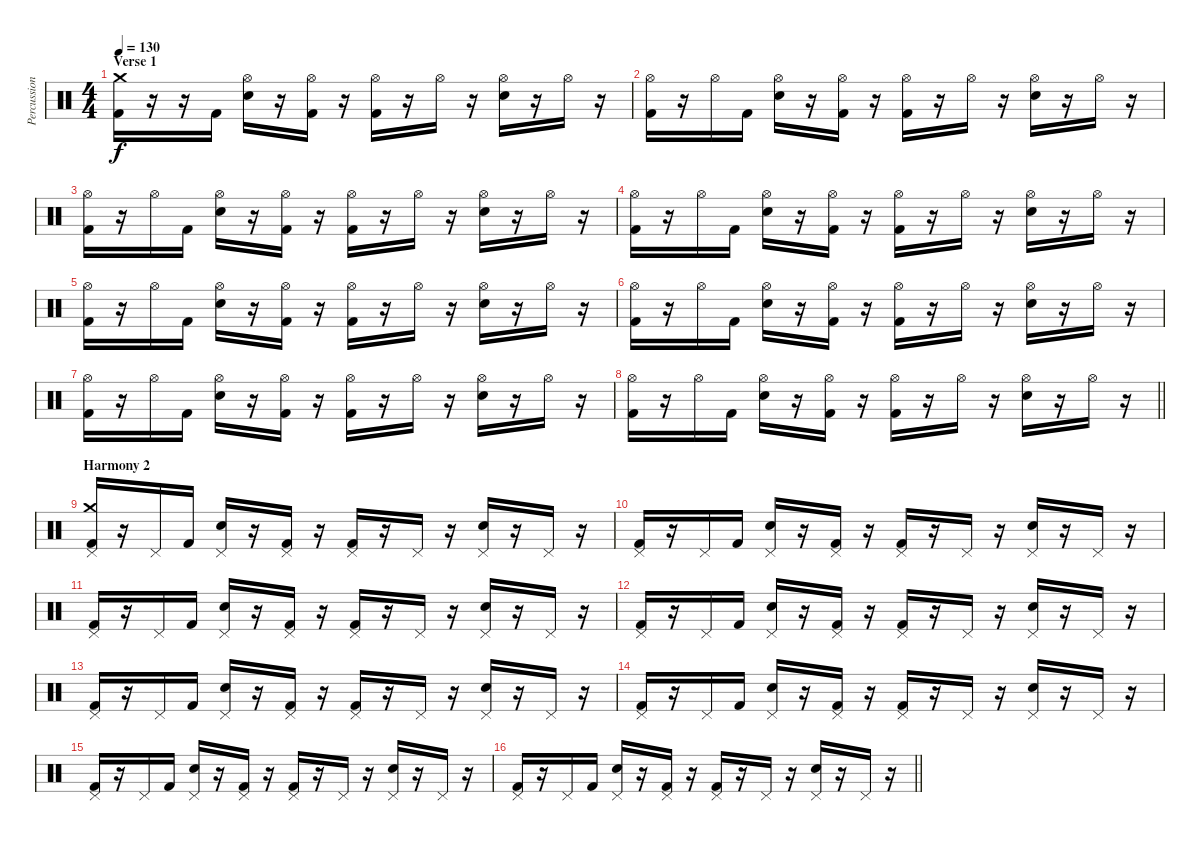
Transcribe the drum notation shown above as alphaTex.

\track ("Percussion" "Percussion") {instrument percussion}
\staff {score}
\articulation defaults
\ts (4 4)
\section ("" "Verse 1")
\tempo 130
\clef neutral
\ks c
("Kick (hit) 2" "Crash medium (hit)").16{dy f} r.16 r.16 "Kick (hit) 2".16 ("Electric Snare (hit)" "Hi-Hat (open)").16 r.16 ("Kick (hit) 2" "Hi-Hat (open)").16 r.16 ("Kick (hit) 2" "Hi-Hat (open)").16 r.16 "Hi-Hat (open)".16 r.16 ("Electric Snare (hit)" "Hi-Hat (open)").16 r.16 "Hi-Hat (open)".16 r.16 |
("Kick (hit) 2" "Hi-Hat (open)").16 r.16 "Hi-Hat (open)".16 "Kick (hit) 2".16 ("Electric Snare (hit)" "Hi-Hat (open)").16 r.16 ("Kick (hit) 2" "Hi-Hat (open)").16 r.16 ("Kick (hit) 2" "Hi-Hat (open)").16 r.16 "Hi-Hat (open)".16 r.16 ("Electric Snare (hit)" "Hi-Hat (open)").16 r.16 "Hi-Hat (open)".16 r.16 |
("Kick (hit) 2" "Hi-Hat (open)").16 r.16 "Hi-Hat (open)".16 "Kick (hit) 2".16 ("Electric Snare (hit)" "Hi-Hat (open)").16 r.16 ("Kick (hit) 2" "Hi-Hat (open)").16 r.16 ("Kick (hit) 2" "Hi-Hat (open)").16 r.16 "Hi-Hat (open)".16 r.16 ("Electric Snare (hit)" "Hi-Hat (open)").16 r.16 "Hi-Hat (open)".16 r.16 |
("Kick (hit) 2" "Hi-Hat (open)").16 r.16 "Hi-Hat (open)".16 "Kick (hit) 2".16 ("Electric Snare (hit)" "Hi-Hat (open)").16 r.16 ("Kick (hit) 2" "Hi-Hat (open)").16 r.16 ("Kick (hit) 2" "Hi-Hat (open)").16 r.16 "Hi-Hat (open)".16 r.16 ("Electric Snare (hit)" "Hi-Hat (open)").16 r.16 "Hi-Hat (open)".16 r.16 |
("Kick (hit) 2" "Hi-Hat (open)").16 r.16 "Hi-Hat (open)".16 "Kick (hit) 2".16 ("Electric Snare (hit)" "Hi-Hat (open)").16 r.16 ("Kick (hit) 2" "Hi-Hat (open)").16 r.16 ("Kick (hit) 2" "Hi-Hat (open)").16 r.16 "Hi-Hat (open)".16 r.16 ("Electric Snare (hit)" "Hi-Hat (open)").16 r.16 "Hi-Hat (open)".16 r.16 |
("Kick (hit) 2" "Hi-Hat (open)").16 r.16 "Hi-Hat (open)".16 "Kick (hit) 2".16 ("Electric Snare (hit)" "Hi-Hat (open)").16 r.16 ("Kick (hit) 2" "Hi-Hat (open)").16 r.16 ("Kick (hit) 2" "Hi-Hat (open)").16 r.16 "Hi-Hat (open)".16 r.16 ("Electric Snare (hit)" "Hi-Hat (open)").16 r.16 "Hi-Hat (open)".16 r.16 |
("Kick (hit) 2" "Hi-Hat (open)").16 r.16 "Hi-Hat (open)".16 "Kick (hit) 2".16 ("Electric Snare (hit)" "Hi-Hat (open)").16 r.16 ("Kick (hit) 2" "Hi-Hat (open)").16 r.16 ("Kick (hit) 2" "Hi-Hat (open)").16 r.16 "Hi-Hat (open)".16 r.16 ("Electric Snare (hit)" "Hi-Hat (open)").16 r.16 "Hi-Hat (open)".16 r.16 |
\barLineRight lightlight
("Kick (hit) 2" "Hi-Hat (open)").16 r.16 "Hi-Hat (open)".16 "Kick (hit) 2".16 ("Electric Snare (hit)" "Hi-Hat (open)").16 r.16 ("Kick (hit) 2" "Hi-Hat (open)").16 r.16 ("Kick (hit) 2" "Hi-Hat (open)").16 r.16 "Hi-Hat (open)".16 r.16 ("Electric Snare (hit)" "Hi-Hat (open)").16 r.16 "Hi-Hat (open)".16 r.16 |
\section ("" "Harmony 2")
("Kick (hit) 2" "Pedal Hi-Hat (hit)" "Crash medium (hit)").16 r.16 "Pedal Hi-Hat (hit)".16 "Kick (hit) 2".16 ("Electric Snare (hit)" "Pedal Hi-Hat (hit)").16 r.16 ("Kick (hit) 2" "Pedal Hi-Hat (hit)").16 r.16 ("Kick (hit) 2" "Pedal Hi-Hat (hit)").16 r.16 "Pedal Hi-Hat (hit)".16 r.16 ("Electric Snare (hit)" "Pedal Hi-Hat (hit)").16 r.16 "Pedal Hi-Hat (hit)".16 r.16 |
("Kick (hit) 2" "Pedal Hi-Hat (hit)").16 r.16 "Pedal Hi-Hat (hit)".16 "Kick (hit) 2".16 ("Electric Snare (hit)" "Pedal Hi-Hat (hit)").16 r.16 ("Kick (hit) 2" "Pedal Hi-Hat (hit)").16 r.16 ("Kick (hit) 2" "Pedal Hi-Hat (hit)").16 r.16 "Pedal Hi-Hat (hit)".16 r.16 ("Electric Snare (hit)" "Pedal Hi-Hat (hit)").16 r.16 "Pedal Hi-Hat (hit)".16 r.16 |
("Kick (hit) 2" "Pedal Hi-Hat (hit)").16 r.16 "Pedal Hi-Hat (hit)".16 "Kick (hit) 2".16 ("Electric Snare (hit)" "Pedal Hi-Hat (hit)").16 r.16 ("Kick (hit) 2" "Pedal Hi-Hat (hit)").16 r.16 ("Kick (hit) 2" "Pedal Hi-Hat (hit)").16 r.16 "Pedal Hi-Hat (hit)".16 r.16 ("Electric Snare (hit)" "Pedal Hi-Hat (hit)").16 r.16 "Pedal Hi-Hat (hit)".16 r.16 |
("Kick (hit) 2" "Pedal Hi-Hat (hit)").16 r.16 "Pedal Hi-Hat (hit)".16 "Kick (hit) 2".16 ("Electric Snare (hit)" "Pedal Hi-Hat (hit)").16 r.16 ("Kick (hit) 2" "Pedal Hi-Hat (hit)").16 r.16 ("Kick (hit) 2" "Pedal Hi-Hat (hit)").16 r.16 "Pedal Hi-Hat (hit)".16 r.16 ("Electric Snare (hit)" "Pedal Hi-Hat (hit)").16 r.16 "Pedal Hi-Hat (hit)".16 r.16 |
("Kick (hit) 2" "Pedal Hi-Hat (hit)").16 r.16 "Pedal Hi-Hat (hit)".16 "Kick (hit) 2".16 ("Electric Snare (hit)" "Pedal Hi-Hat (hit)").16 r.16 ("Kick (hit) 2" "Pedal Hi-Hat (hit)").16 r.16 ("Kick (hit) 2" "Pedal Hi-Hat (hit)").16 r.16 "Pedal Hi-Hat (hit)".16 r.16 ("Electric Snare (hit)" "Pedal Hi-Hat (hit)").16 r.16 "Pedal Hi-Hat (hit)".16 r.16 |
("Kick (hit) 2" "Pedal Hi-Hat (hit)").16 r.16 "Pedal Hi-Hat (hit)".16 "Kick (hit) 2".16 ("Electric Snare (hit)" "Pedal Hi-Hat (hit)").16 r.16 ("Kick (hit) 2" "Pedal Hi-Hat (hit)").16 r.16 ("Kick (hit) 2" "Pedal Hi-Hat (hit)").16 r.16 "Pedal Hi-Hat (hit)".16 r.16 ("Electric Snare (hit)" "Pedal Hi-Hat (hit)").16 r.16 "Pedal Hi-Hat (hit)".16 r.16 |
("Kick (hit) 2" "Pedal Hi-Hat (hit)").16 r.16 "Pedal Hi-Hat (hit)".16 "Kick (hit) 2".16 ("Electric Snare (hit)" "Pedal Hi-Hat (hit)").16 r.16 ("Kick (hit) 2" "Pedal Hi-Hat (hit)").16 r.16 ("Kick (hit) 2" "Pedal Hi-Hat (hit)").16 r.16 "Pedal Hi-Hat (hit)".16 r.16 ("Electric Snare (hit)" "Pedal Hi-Hat (hit)").16 r.16 "Pedal Hi-Hat (hit)".16 r.16 |
\barLineRight lightlight
("Kick (hit) 2" "Pedal Hi-Hat (hit)").16 r.16 "Pedal Hi-Hat (hit)".16 "Kick (hit) 2".16 ("Electric Snare (hit)" "Pedal Hi-Hat (hit)").16 r.16 ("Kick (hit) 2" "Pedal Hi-Hat (hit)").16 r.16 ("Kick (hit) 2" "Pedal Hi-Hat (hit)").16 r.16 "Pedal Hi-Hat (hit)".16 r.16 ("Electric Snare (hit)" "Pedal Hi-Hat (hit)").16 r.16 "Pedal Hi-Hat (hit)".16 r.16
